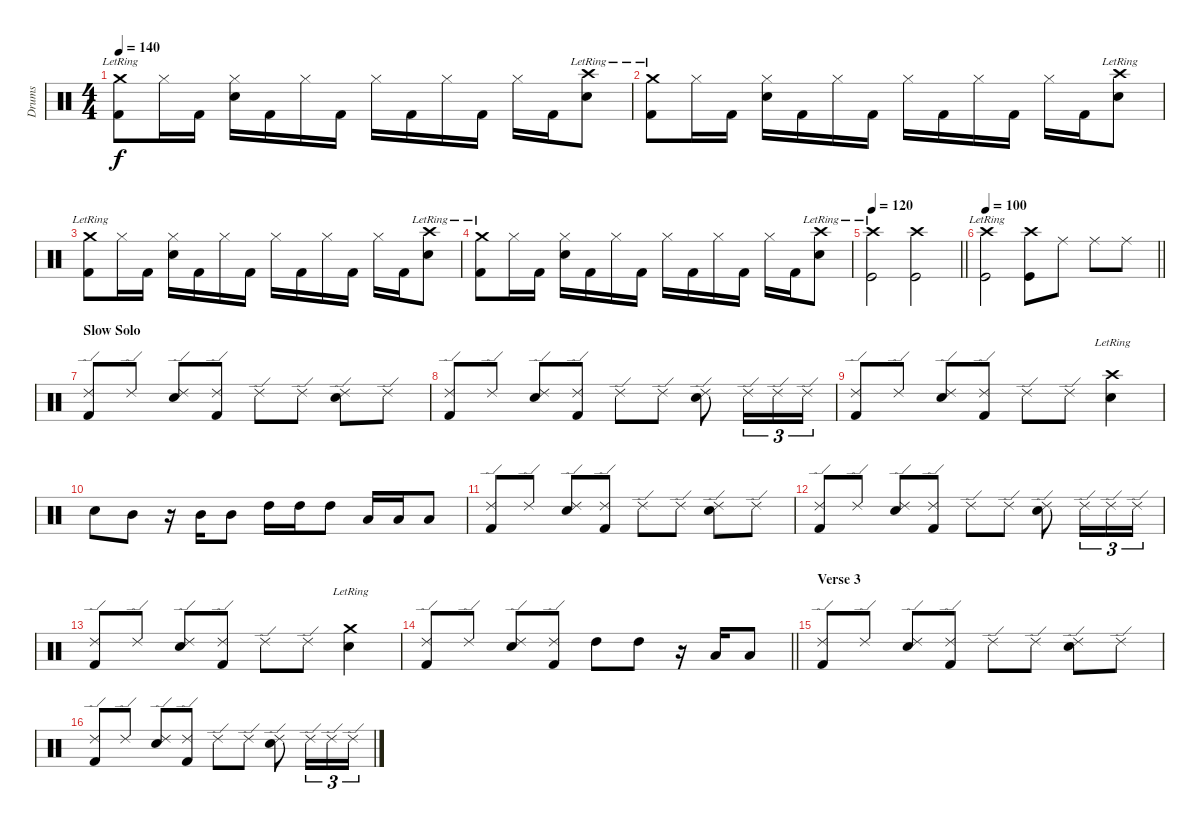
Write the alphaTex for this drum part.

\track ("Drums" "Drums") {instrument percussion}
\staff {score}
\articulation defaults
\ts (4 4)
\tempo 140
\clef neutral
\ks c
("Crash medium (hit)"{lr} "Kick (hit) 2").8{dy f} "Hi-Hat (closed)".16 "Kick (hit) 2".16 ("Hi-Hat (closed)" "Snare (hit) 2").16 "Kick (hit) 2".16 "Hi-Hat (closed)".16 "Kick (hit) 2".16 "Hi-Hat (closed)".16 "Kick (hit) 2".16 "Hi-Hat (closed)".16 "Kick (hit) 2".16 "Hi-Hat (closed)".16 "Kick (hit) 2".16 ("Crash high (hit)"{lr} "Snare (hit) 2").8 |
("Crash medium (hit)"{lr} "Kick (hit) 2").8 "Hi-Hat (closed)".16 "Kick (hit) 2".16 ("Hi-Hat (closed)" "Snare (hit) 2").16 "Kick (hit) 2".16 "Hi-Hat (closed)".16 "Kick (hit) 2".16 "Hi-Hat (closed)".16 "Kick (hit) 2".16 "Hi-Hat (closed)".16 "Kick (hit) 2".16 "Hi-Hat (closed)".16 "Kick (hit) 2".16 ("Crash high (hit)"{lr} "Snare (hit) 2").8 |
("Crash medium (hit)"{lr} "Kick (hit) 2").8 "Hi-Hat (closed)".16 "Kick (hit) 2".16 ("Hi-Hat (closed)" "Snare (hit) 2").16 "Kick (hit) 2".16 "Hi-Hat (closed)".16 "Kick (hit) 2".16 "Hi-Hat (closed)".16 "Kick (hit) 2".16 "Hi-Hat (closed)".16 "Kick (hit) 2".16 "Hi-Hat (closed)".16 "Kick (hit) 2".16 ("Crash high (hit)"{lr} "Snare (hit) 2").8 |
("Crash medium (hit)"{lr} "Kick (hit) 2").8 "Hi-Hat (closed)".16 "Kick (hit) 2".16 ("Hi-Hat (closed)" "Snare (hit) 2").16 "Kick (hit) 2".16 "Hi-Hat (closed)".16 "Kick (hit) 2".16 "Hi-Hat (closed)".16 "Kick (hit) 2".16 "Hi-Hat (closed)".16 "Kick (hit) 2".16 "Hi-Hat (closed)".16 "Kick (hit) 2".16 ("Crash high (hit)"{lr} "Snare (hit) 2").8 |
\tempo 120
\barLineRight lightlight
("Crash high (hit)"{lr} "Kick (hit)").2 ("Crash high (hit)" "Kick (hit)").2 |
\tempo 100
\barLineRight lightlight
("Crash high (hit)"{lr} "Kick (hit)").2 ("Crash high (hit)" "Kick (hit)").8 "Ride (middle)".8 "Ride (middle)".8 "Ride (middle)".8 |
\section ("" "Slow Solo")
("Ride (edge) 2" "Kick (hit) 2").8 "Ride (edge) 2".8 ("Ride (edge) 2" "Snare (hit) 2").8 ("Ride (edge) 2" "Kick (hit) 2").8 "Ride (edge) 2".8 "Ride (edge) 2".8 ("Ride (edge) 2" "Snare (hit) 2").8 "Ride (edge) 2".8 |
("Ride (edge) 2" "Kick (hit) 2").8 "Ride (edge) 2".8 ("Ride (edge) 2" "Snare (hit) 2").8 ("Ride (edge) 2" "Kick (hit) 2").8 "Ride (edge) 2".8 "Ride (edge) 2".8 ("Ride (edge) 2" "Snare (hit) 2").8 "Ride (edge) 2".16{tu (3 2)} "Ride (edge) 2".16{tu (3 2)} "Ride (edge) 2".16{tu (3 2)} |
("Ride (edge) 2" "Kick (hit) 2").8 "Ride (edge) 2".8 ("Ride (edge) 2" "Snare (hit) 2").8 ("Ride (edge) 2" "Kick (hit) 2").8 "Ride (edge) 2".8 "Ride (edge) 2".8 ("Crash high (hit)"{lr} "Snare (hit) 2").4 |
"Snare (hit) 2".8 "Mid Tom (hit)".8 r.16 "Mid Tom (hit)".16 "Mid Tom (hit)".8 "High Tom (hit)".16 "High Tom (hit)".16 "High Tom (hit)".8 "Low Tom (hit)".16 "Low Tom (hit)".16 "Low Tom (hit)".8 |
("Ride (edge) 2" "Kick (hit) 2").8 "Ride (edge) 2".8 ("Ride (edge) 2" "Snare (hit) 2").8 ("Ride (edge) 2" "Kick (hit) 2").8 "Ride (edge) 2".8 "Ride (edge) 2".8 ("Ride (edge) 2" "Snare (hit) 2").8 "Ride (edge) 2".8 |
("Ride (edge) 2" "Kick (hit) 2").8 "Ride (edge) 2".8 ("Ride (edge) 2" "Snare (hit) 2").8 ("Ride (edge) 2" "Kick (hit) 2").8 "Ride (edge) 2".8 "Ride (edge) 2".8 ("Ride (edge) 2" "Snare (hit) 2").8 "Ride (edge) 2".16{tu (3 2)} "Ride (edge) 2".16{tu (3 2)} "Ride (edge) 2".16{tu (3 2)} |
("Ride (edge) 2" "Kick (hit) 2").8 "Ride (edge) 2".8 ("Ride (edge) 2" "Snare (hit) 2").8 ("Ride (edge) 2" "Kick (hit) 2").8 "Ride (edge) 2".8 "Ride (edge) 2".8 ("Crash medium (hit)"{lr} "Snare (hit) 2").4 |
\barLineRight lightlight
("Ride (edge) 2" "Kick (hit) 2").8 "Ride (edge) 2".8 ("Ride (edge) 2" "Snare (hit) 2").8 ("Ride (edge) 2" "Kick (hit) 2").8 "High Tom (hit)".8 "High Tom (hit)".8 r.16 "Low Tom (hit)".16 "Low Tom (hit)".8 |
\section ("" "Verse 3")
("Ride (edge) 2" "Kick (hit) 2").8 "Ride (edge) 2".8 ("Ride (edge) 2" "Snare (hit) 2").8 ("Ride (edge) 2" "Kick (hit) 2").8 "Ride (edge) 2".8 "Ride (edge) 2".8 ("Ride (edge) 2" "Snare (hit) 2").8 "Ride (edge) 2".8 |
("Ride (edge) 2" "Kick (hit) 2").8 "Ride (edge) 2".8 ("Ride (edge) 2" "Snare (hit) 2").8 ("Ride (edge) 2" "Kick (hit) 2").8 "Ride (edge) 2".8 "Ride (edge) 2".8 ("Ride (edge) 2" "Snare (hit) 2").8 "Ride (edge) 2".16{tu (3 2)} "Ride (edge) 2".16{tu (3 2)} "Ride (edge) 2".16{tu (3 2)}
